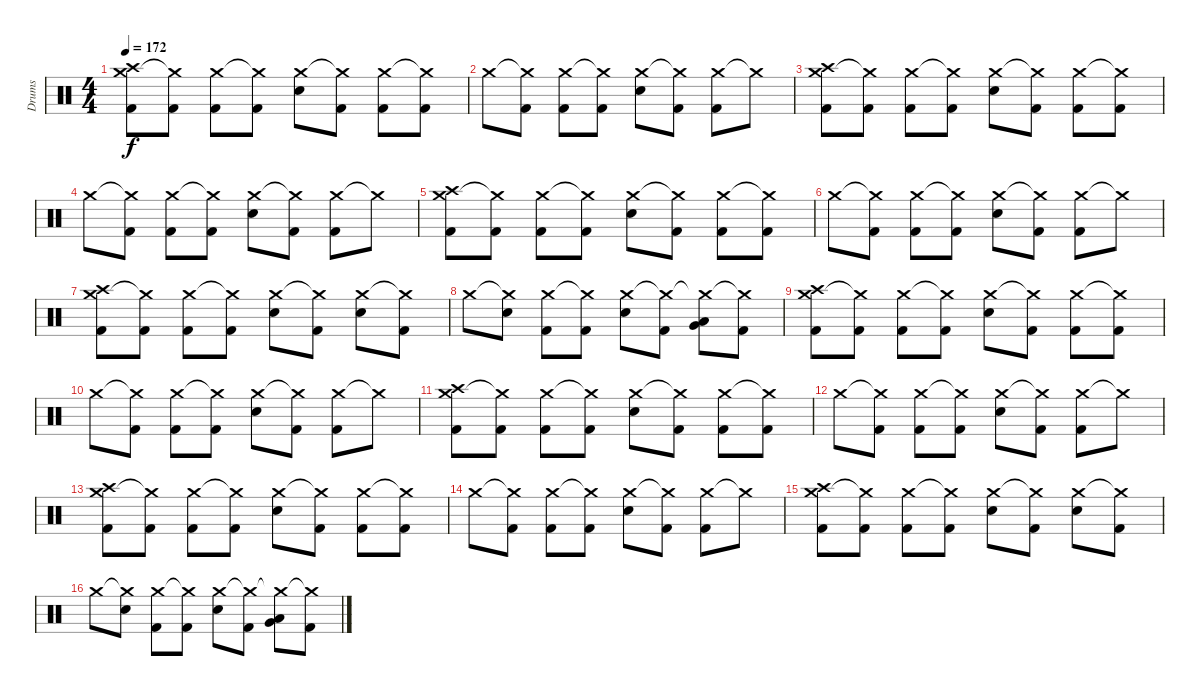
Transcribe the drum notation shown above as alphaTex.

\track ("Drums" "Drums") {instrument percussion}
\staff {score}
\articulation defaults
\ts (4 4)
\tempo 172
\clef neutral
\ks c
("Crash medium (hit)" "Crash high (hit)" "Kick (hit) 2").8{dy f} ("Crash medium (hit)"{t} "Kick (hit) 2").8 ("Crash medium (hit)" "Kick (hit) 2").8 ("Crash medium (hit)"{t} "Kick (hit) 2").8 ("Crash medium (hit)" "Electric Snare (hit)").8 ("Crash medium (hit)"{t} "Kick (hit) 2").8 ("Crash medium (hit)" "Kick (hit) 2").8 ("Crash medium (hit)"{t} "Kick (hit) 2").8 |
"Crash medium (hit)".8 ("Crash medium (hit)"{t} "Kick (hit) 2").8 ("Crash medium (hit)" "Kick (hit) 2").8 ("Crash medium (hit)"{t} "Kick (hit) 2").8 ("Crash medium (hit)" "Electric Snare (hit)").8 ("Crash medium (hit)"{t} "Kick (hit) 2").8 ("Crash medium (hit)" "Kick (hit) 2").8 "Crash medium (hit)"{t}.8 |
("Crash medium (hit)" "Crash high (hit)" "Kick (hit) 2").8 ("Crash medium (hit)"{t} "Kick (hit) 2").8 ("Crash medium (hit)" "Kick (hit) 2").8 ("Crash medium (hit)"{t} "Kick (hit) 2").8 ("Crash medium (hit)" "Electric Snare (hit)").8 ("Crash medium (hit)"{t} "Kick (hit) 2").8 ("Crash medium (hit)" "Kick (hit) 2").8 ("Crash medium (hit)"{t} "Kick (hit) 2").8 |
"Crash medium (hit)".8 ("Crash medium (hit)"{t} "Kick (hit) 2").8 ("Crash medium (hit)" "Kick (hit) 2").8 ("Crash medium (hit)"{t} "Kick (hit) 2").8 ("Crash medium (hit)" "Electric Snare (hit)").8 ("Crash medium (hit)"{t} "Kick (hit) 2").8 ("Crash medium (hit)" "Kick (hit) 2").8 "Crash medium (hit)"{t}.8 |
("Crash medium (hit)" "Crash high (hit)" "Kick (hit) 2").8 ("Crash medium (hit)"{t} "Kick (hit) 2").8 ("Crash medium (hit)" "Kick (hit) 2").8 ("Crash medium (hit)"{t} "Kick (hit) 2").8 ("Crash medium (hit)" "Electric Snare (hit)").8 ("Crash medium (hit)"{t} "Kick (hit) 2").8 ("Crash medium (hit)" "Kick (hit) 2").8 ("Crash medium (hit)"{t} "Kick (hit) 2").8 |
"Crash medium (hit)".8 ("Crash medium (hit)"{t} "Kick (hit) 2").8 ("Crash medium (hit)" "Kick (hit) 2").8 ("Crash medium (hit)"{t} "Kick (hit) 2").8 ("Crash medium (hit)" "Electric Snare (hit)").8 ("Crash medium (hit)"{t} "Kick (hit) 2").8 ("Crash medium (hit)" "Kick (hit) 2").8 "Crash medium (hit)"{t}.8 |
("Crash medium (hit)" "Crash high (hit)" "Kick (hit) 2").8 ("Crash medium (hit)"{t} "Kick (hit) 2").8 ("Crash medium (hit)" "Kick (hit) 2").8 ("Crash medium (hit)"{t} "Kick (hit) 2").8 ("Crash medium (hit)" "Electric Snare (hit)").8 ("Crash medium (hit)"{t} "Kick (hit) 2").8 ("Crash medium (hit)" "Electric Snare (hit)").8 ("Crash medium (hit)"{t} "Kick (hit) 2").8 |
"Crash medium (hit)".8 ("Crash medium (hit)"{t} "Electric Snare (hit)").8 ("Crash medium (hit)" "Kick (hit) 2").8 ("Crash medium (hit)"{t} "Kick (hit) 2").8 ("Crash medium (hit)" "Electric Snare (hit)").8 ("Crash medium (hit)"{t} "Kick (hit) 2").8 ("Crash medium (hit)"{t} "Low Floor Tom (hit)" "Very Low Tom (hit)").8 ("Crash medium (hit)"{t} "Kick (hit) 2").8 |
("Crash medium (hit)" "Crash high (hit)" "Kick (hit) 2").8 ("Crash medium (hit)"{t} "Kick (hit) 2").8 ("Crash medium (hit)" "Kick (hit) 2").8 ("Crash medium (hit)"{t} "Kick (hit) 2").8 ("Crash medium (hit)" "Electric Snare (hit)").8 ("Crash medium (hit)"{t} "Kick (hit) 2").8 ("Crash medium (hit)" "Kick (hit) 2").8 ("Crash medium (hit)"{t} "Kick (hit) 2").8 |
"Crash medium (hit)".8 ("Crash medium (hit)"{t} "Kick (hit) 2").8 ("Crash medium (hit)" "Kick (hit) 2").8 ("Crash medium (hit)"{t} "Kick (hit) 2").8 ("Crash medium (hit)" "Electric Snare (hit)").8 ("Crash medium (hit)"{t} "Kick (hit) 2").8 ("Crash medium (hit)" "Kick (hit) 2").8 "Crash medium (hit)"{t}.8 |
("Crash medium (hit)" "Crash high (hit)" "Kick (hit) 2").8 ("Crash medium (hit)"{t} "Kick (hit) 2").8 ("Crash medium (hit)" "Kick (hit) 2").8 ("Crash medium (hit)"{t} "Kick (hit) 2").8 ("Crash medium (hit)" "Electric Snare (hit)").8 ("Crash medium (hit)"{t} "Kick (hit) 2").8 ("Crash medium (hit)" "Kick (hit) 2").8 ("Crash medium (hit)"{t} "Kick (hit) 2").8 |
"Crash medium (hit)".8 ("Crash medium (hit)"{t} "Kick (hit) 2").8 ("Crash medium (hit)" "Kick (hit) 2").8 ("Crash medium (hit)"{t} "Kick (hit) 2").8 ("Crash medium (hit)" "Electric Snare (hit)").8 ("Crash medium (hit)"{t} "Kick (hit) 2").8 ("Crash medium (hit)" "Kick (hit) 2").8 "Crash medium (hit)"{t}.8 |
("Crash medium (hit)" "Crash high (hit)" "Kick (hit) 2").8 ("Crash medium (hit)"{t} "Kick (hit) 2").8 ("Crash medium (hit)" "Kick (hit) 2").8 ("Crash medium (hit)"{t} "Kick (hit) 2").8 ("Crash medium (hit)" "Electric Snare (hit)").8 ("Crash medium (hit)"{t} "Kick (hit) 2").8 ("Crash medium (hit)" "Kick (hit) 2").8 ("Crash medium (hit)"{t} "Kick (hit) 2").8 |
"Crash medium (hit)".8 ("Crash medium (hit)"{t} "Kick (hit) 2").8 ("Crash medium (hit)" "Kick (hit) 2").8 ("Crash medium (hit)"{t} "Kick (hit) 2").8 ("Crash medium (hit)" "Electric Snare (hit)").8 ("Crash medium (hit)"{t} "Kick (hit) 2").8 ("Crash medium (hit)" "Kick (hit) 2").8 "Crash medium (hit)"{t}.8 |
("Crash medium (hit)" "Crash high (hit)" "Kick (hit) 2").8 ("Crash medium (hit)"{t} "Kick (hit) 2").8 ("Crash medium (hit)" "Kick (hit) 2").8 ("Crash medium (hit)"{t} "Kick (hit) 2").8 ("Crash medium (hit)" "Electric Snare (hit)").8 ("Crash medium (hit)"{t} "Kick (hit) 2").8 ("Crash medium (hit)" "Electric Snare (hit)").8 ("Crash medium (hit)"{t} "Kick (hit) 2").8 |
"Crash medium (hit)".8 ("Crash medium (hit)"{t} "Electric Snare (hit)").8 ("Crash medium (hit)" "Kick (hit) 2").8 ("Crash medium (hit)"{t} "Kick (hit) 2").8 ("Crash medium (hit)" "Electric Snare (hit)").8 ("Crash medium (hit)"{t} "Kick (hit) 2").8 ("Crash medium (hit)"{t} "Low Floor Tom (hit)" "Very Low Tom (hit)").8 ("Crash medium (hit)"{t} "Kick (hit) 2").8
